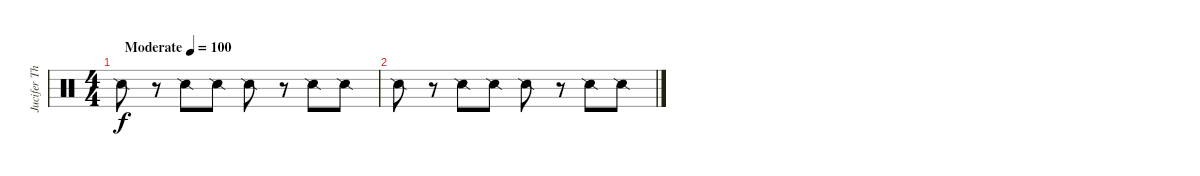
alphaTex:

\track ("Jucifer The Reaper" "Jucifer Th") {instrument percussion}
\staff {score}
\articulation defaults
\ts (4 4)
\tempo (100 "Moderate")
\clef neutral
\ks c "Snare (side stick) 2".8{dy f}
r.8 "Snare (side stick) 2".8 "Snare (side stick) 2".8 "Snare (side stick) 2".8 r.8 "Snare (side stick) 2".8 "Snare (side stick) 2".8 |
"Snare (side stick) 2".8 r.8 "Snare (side stick) 2".8 "Snare (side stick) 2".8 "Snare (side stick) 2".8 r.8 "Snare (side stick) 2".8 "Snare (side stick) 2".8
